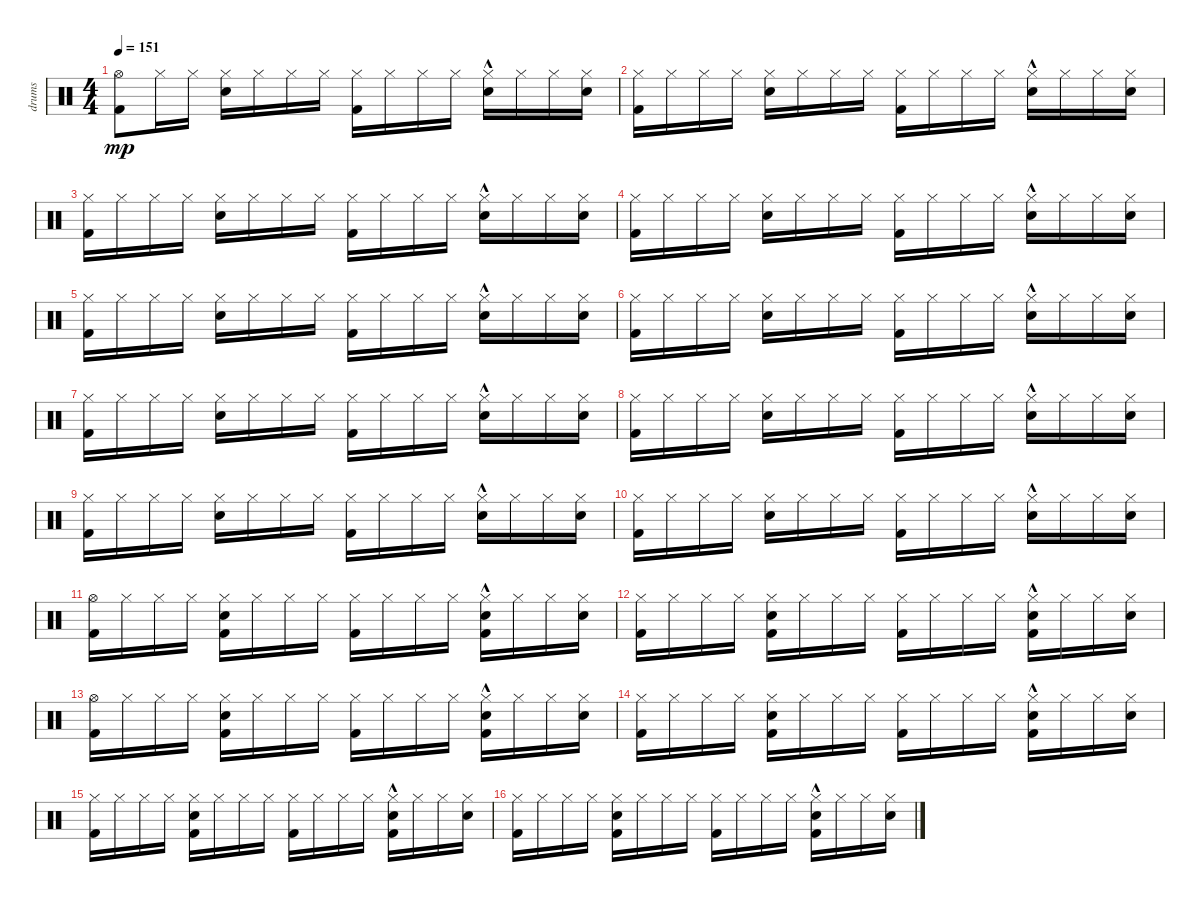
\track ("drums" "drums") {instrument percussion}
\staff {score}
\articulation defaults
\ts (4 4)
\tempo 151
\clef neutral
\ks c
("Hi-Hat (open)" "Kick (hit) 2").8{dy mp} "Hi-Hat (closed)".16 "Hi-Hat (closed)".16 ("Hi-Hat (closed)" "Snare (hit) 2").16 "Hi-Hat (closed)".16 "Hi-Hat (closed)".16 "Hi-Hat (closed)".16 ("Hi-Hat (closed)" "Kick (hit) 2").16 "Hi-Hat (closed)".16 "Hi-Hat (closed)".16 "Hi-Hat (closed)".16 ("Hi-Hat (closed)" "Snare (hit) 2"{hac}).16 "Hi-Hat (closed)".16 "Hi-Hat (closed)".16 ("Hi-Hat (closed)" "Snare (hit) 2").16 |
("Hi-Hat (closed)" "Kick (hit) 2").16 "Hi-Hat (closed)".16 "Hi-Hat (closed)".16 "Hi-Hat (closed)".16 ("Hi-Hat (closed)" "Snare (hit) 2").16 "Hi-Hat (closed)".16 "Hi-Hat (closed)".16 "Hi-Hat (closed)".16 ("Hi-Hat (closed)" "Kick (hit) 2").16 "Hi-Hat (closed)".16 "Hi-Hat (closed)".16 "Hi-Hat (closed)".16 ("Hi-Hat (closed)" "Snare (hit) 2"{hac}).16 "Hi-Hat (closed)".16 "Hi-Hat (closed)".16 ("Hi-Hat (closed)" "Snare (hit) 2").16 |
("Hi-Hat (closed)" "Kick (hit) 2").16 "Hi-Hat (closed)".16 "Hi-Hat (closed)".16 "Hi-Hat (closed)".16 ("Hi-Hat (closed)" "Snare (hit) 2").16 "Hi-Hat (closed)".16 "Hi-Hat (closed)".16 "Hi-Hat (closed)".16 ("Hi-Hat (closed)" "Kick (hit) 2").16 "Hi-Hat (closed)".16 "Hi-Hat (closed)".16 "Hi-Hat (closed)".16 ("Hi-Hat (closed)" "Snare (hit) 2"{hac}).16 "Hi-Hat (closed)".16 "Hi-Hat (closed)".16 ("Hi-Hat (closed)" "Snare (hit) 2").16 |
("Hi-Hat (closed)" "Kick (hit) 2").16 "Hi-Hat (closed)".16 "Hi-Hat (closed)".16 "Hi-Hat (closed)".16 ("Hi-Hat (closed)" "Snare (hit) 2").16 "Hi-Hat (closed)".16 "Hi-Hat (closed)".16 "Hi-Hat (closed)".16 ("Hi-Hat (closed)" "Kick (hit) 2").16 "Hi-Hat (closed)".16 "Hi-Hat (closed)".16 "Hi-Hat (closed)".16 ("Hi-Hat (closed)" "Snare (hit) 2"{hac}).16 "Hi-Hat (closed)".16 "Hi-Hat (closed)".16 ("Hi-Hat (closed)" "Snare (hit) 2").16 |
("Hi-Hat (closed)" "Kick (hit) 2").16 "Hi-Hat (closed)".16 "Hi-Hat (closed)".16 "Hi-Hat (closed)".16 ("Hi-Hat (closed)" "Snare (hit) 2").16 "Hi-Hat (closed)".16 "Hi-Hat (closed)".16 "Hi-Hat (closed)".16 ("Hi-Hat (closed)" "Kick (hit) 2").16 "Hi-Hat (closed)".16 "Hi-Hat (closed)".16 "Hi-Hat (closed)".16 ("Hi-Hat (closed)" "Snare (hit) 2"{hac}).16 "Hi-Hat (closed)".16 "Hi-Hat (closed)".16 ("Hi-Hat (closed)" "Snare (hit) 2").16 |
("Hi-Hat (closed)" "Kick (hit) 2").16 "Hi-Hat (closed)".16 "Hi-Hat (closed)".16 "Hi-Hat (closed)".16 ("Hi-Hat (closed)" "Snare (hit) 2").16 "Hi-Hat (closed)".16 "Hi-Hat (closed)".16 "Hi-Hat (closed)".16 ("Hi-Hat (closed)" "Kick (hit) 2").16 "Hi-Hat (closed)".16 "Hi-Hat (closed)".16 "Hi-Hat (closed)".16 ("Hi-Hat (closed)" "Snare (hit) 2"{hac}).16 "Hi-Hat (closed)".16 "Hi-Hat (closed)".16 ("Hi-Hat (closed)" "Snare (hit) 2").16 |
("Hi-Hat (closed)" "Kick (hit) 2").16 "Hi-Hat (closed)".16 "Hi-Hat (closed)".16 "Hi-Hat (closed)".16 ("Hi-Hat (closed)" "Snare (hit) 2").16 "Hi-Hat (closed)".16 "Hi-Hat (closed)".16 "Hi-Hat (closed)".16 ("Hi-Hat (closed)" "Kick (hit) 2").16 "Hi-Hat (closed)".16 "Hi-Hat (closed)".16 "Hi-Hat (closed)".16 ("Hi-Hat (closed)" "Snare (hit) 2"{hac}).16 "Hi-Hat (closed)".16 "Hi-Hat (closed)".16 ("Hi-Hat (closed)" "Snare (hit) 2").16 |
("Hi-Hat (closed)" "Kick (hit) 2").16 "Hi-Hat (closed)".16 "Hi-Hat (closed)".16 "Hi-Hat (closed)".16 ("Hi-Hat (closed)" "Snare (hit) 2").16 "Hi-Hat (closed)".16 "Hi-Hat (closed)".16 "Hi-Hat (closed)".16 ("Hi-Hat (closed)" "Kick (hit) 2").16 "Hi-Hat (closed)".16 "Hi-Hat (closed)".16 "Hi-Hat (closed)".16 ("Hi-Hat (closed)" "Snare (hit) 2"{hac}).16 "Hi-Hat (closed)".16 "Hi-Hat (closed)".16 ("Hi-Hat (closed)" "Snare (hit) 2").16 |
("Hi-Hat (closed)" "Kick (hit) 2").16 "Hi-Hat (closed)".16 "Hi-Hat (closed)".16 "Hi-Hat (closed)".16 ("Hi-Hat (closed)" "Snare (hit) 2").16 "Hi-Hat (closed)".16 "Hi-Hat (closed)".16 "Hi-Hat (closed)".16 ("Hi-Hat (closed)" "Kick (hit) 2").16 "Hi-Hat (closed)".16 "Hi-Hat (closed)".16 "Hi-Hat (closed)".16 ("Hi-Hat (closed)" "Snare (hit) 2"{hac}).16 "Hi-Hat (closed)".16 "Hi-Hat (closed)".16 ("Hi-Hat (closed)" "Snare (hit) 2").16 |
("Hi-Hat (closed)" "Kick (hit) 2").16 "Hi-Hat (closed)".16 "Hi-Hat (closed)".16 "Hi-Hat (closed)".16 ("Hi-Hat (closed)" "Snare (hit) 2").16 "Hi-Hat (closed)".16 "Hi-Hat (closed)".16 "Hi-Hat (closed)".16 ("Hi-Hat (closed)" "Kick (hit) 2").16 "Hi-Hat (closed)".16 "Hi-Hat (closed)".16 "Hi-Hat (closed)".16 ("Hi-Hat (closed)" "Snare (hit) 2"{hac}).16 "Hi-Hat (closed)".16 "Hi-Hat (closed)".16 ("Hi-Hat (closed)" "Snare (hit) 2").16 |
("Hi-Hat (open)" "Kick (hit) 2").16 "Hi-Hat (closed)".16 "Hi-Hat (closed)".16 "Hi-Hat (closed)".16 ("Hi-Hat (closed)" "Kick (hit) 2" "Snare (hit) 2").16 "Hi-Hat (closed)".16 "Hi-Hat (closed)".16 "Hi-Hat (closed)".16 ("Hi-Hat (closed)" "Kick (hit) 2").16 "Hi-Hat (closed)".16 "Hi-Hat (closed)".16 "Hi-Hat (closed)".16 ("Hi-Hat (closed)" "Kick (hit) 2"{hac} "Snare (hit) 2"{hac}).16 "Hi-Hat (closed)".16 "Hi-Hat (closed)".16 ("Hi-Hat (closed)" "Snare (hit) 2").16 |
("Hi-Hat (closed)" "Kick (hit) 2").16 "Hi-Hat (closed)".16 "Hi-Hat (closed)".16 "Hi-Hat (closed)".16 ("Hi-Hat (closed)" "Kick (hit) 2" "Snare (hit) 2").16 "Hi-Hat (closed)".16 "Hi-Hat (closed)".16 "Hi-Hat (closed)".16 ("Hi-Hat (closed)" "Kick (hit) 2").16 "Hi-Hat (closed)".16 "Hi-Hat (closed)".16 "Hi-Hat (closed)".16 ("Hi-Hat (closed)" "Kick (hit) 2"{hac} "Snare (hit) 2"{hac}).16 "Hi-Hat (closed)".16 "Hi-Hat (closed)".16 ("Hi-Hat (closed)" "Snare (hit) 2").16 |
("Hi-Hat (open)" "Kick (hit) 2").16 "Hi-Hat (closed)".16 "Hi-Hat (closed)".16 "Hi-Hat (closed)".16 ("Hi-Hat (closed)" "Kick (hit) 2" "Snare (hit) 2").16 "Hi-Hat (closed)".16 "Hi-Hat (closed)".16 "Hi-Hat (closed)".16 ("Hi-Hat (closed)" "Kick (hit) 2").16 "Hi-Hat (closed)".16 "Hi-Hat (closed)".16 "Hi-Hat (closed)".16 ("Hi-Hat (closed)" "Kick (hit) 2"{hac} "Snare (hit) 2"{hac}).16 "Hi-Hat (closed)".16 "Hi-Hat (closed)".16 ("Hi-Hat (closed)" "Snare (hit) 2").16 |
("Hi-Hat (closed)" "Kick (hit) 2").16 "Hi-Hat (closed)".16 "Hi-Hat (closed)".16 "Hi-Hat (closed)".16 ("Hi-Hat (closed)" "Kick (hit) 2" "Snare (hit) 2").16 "Hi-Hat (closed)".16 "Hi-Hat (closed)".16 "Hi-Hat (closed)".16 ("Hi-Hat (closed)" "Kick (hit) 2").16 "Hi-Hat (closed)".16 "Hi-Hat (closed)".16 "Hi-Hat (closed)".16 ("Hi-Hat (closed)" "Kick (hit) 2"{hac} "Snare (hit) 2"{hac}).16 "Hi-Hat (closed)".16 "Hi-Hat (closed)".16 ("Hi-Hat (closed)" "Snare (hit) 2").16 |
("Hi-Hat (closed)" "Kick (hit) 2").16 "Hi-Hat (closed)".16 "Hi-Hat (closed)".16 "Hi-Hat (closed)".16 ("Hi-Hat (closed)" "Kick (hit) 2" "Snare (hit) 2").16 "Hi-Hat (closed)".16 "Hi-Hat (closed)".16 "Hi-Hat (closed)".16 ("Hi-Hat (closed)" "Kick (hit) 2").16 "Hi-Hat (closed)".16 "Hi-Hat (closed)".16 "Hi-Hat (closed)".16 ("Hi-Hat (closed)" "Kick (hit) 2"{hac} "Snare (hit) 2"{hac}).16 "Hi-Hat (closed)".16 "Hi-Hat (closed)".16 ("Hi-Hat (closed)" "Snare (hit) 2").16 |
("Hi-Hat (closed)" "Kick (hit) 2").16 "Hi-Hat (closed)".16 "Hi-Hat (closed)".16 "Hi-Hat (closed)".16 ("Hi-Hat (closed)" "Kick (hit) 2" "Snare (hit) 2").16 "Hi-Hat (closed)".16 "Hi-Hat (closed)".16 "Hi-Hat (closed)".16 ("Hi-Hat (closed)" "Kick (hit) 2").16 "Hi-Hat (closed)".16 "Hi-Hat (closed)".16 "Hi-Hat (closed)".16 ("Hi-Hat (closed)" "Kick (hit) 2"{hac} "Snare (hit) 2"{hac}).16 "Hi-Hat (closed)".16 "Hi-Hat (closed)".16 ("Hi-Hat (closed)" "Snare (hit) 2").16
